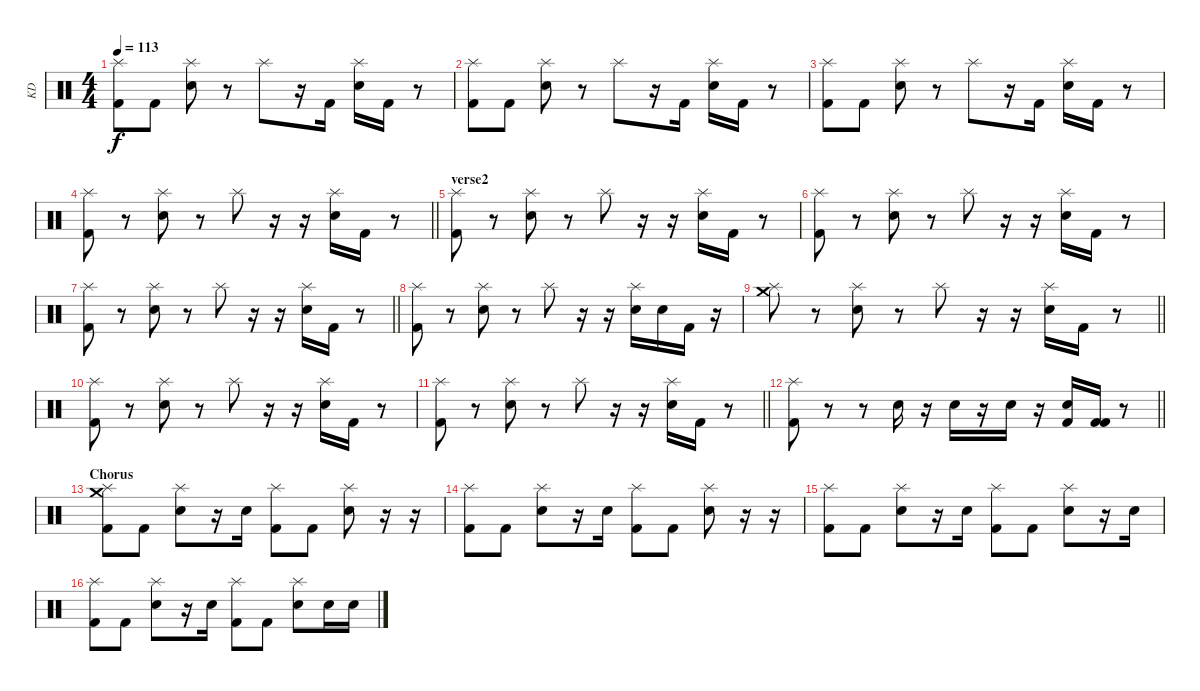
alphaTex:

\track ("KD" "KD") {instrument percussion}
\staff {score}
\articulation defaults
\ts (4 4)
\tempo 113
\clef neutral
\ks c
("Kick (hit) 2" "Splash (hit)").8{dy f} "Kick (hit) 2".8 ("Electric Snare (hit)" "Splash (hit)").8 r.8 "Splash (hit)".8 r.16 "Kick (hit) 2".16 ("Electric Snare (hit)" "Splash (hit)").16 "Kick (hit) 2".16 r.8 |
("Kick (hit) 2" "Splash (hit)").8 "Kick (hit) 2".8 ("Electric Snare (hit)" "Splash (hit)").8 r.8 "Splash (hit)".8 r.16 "Kick (hit) 2".16 ("Electric Snare (hit)" "Splash (hit)").16 "Kick (hit) 2".16 r.8 |
("Kick (hit) 2" "Splash (hit)").8 "Kick (hit) 2".8 ("Electric Snare (hit)" "Splash (hit)").8 r.8 "Splash (hit)".8 r.16 "Kick (hit) 2".16 ("Electric Snare (hit)" "Splash (hit)").16 "Kick (hit) 2".16 r.8 |
\barLineRight lightlight
("Kick (hit) 2" "Splash (hit)").8 r.8 ("Electric Snare (hit)" "Splash (hit)").8 r.8 "Splash (hit)".8 r.16 r.16 ("Electric Snare (hit)" "Splash (hit)").16 "Kick (hit) 2".16 r.8 |
\section ("" "verse2")
("Kick (hit) 2" "Splash (hit)").8 r.8 ("Electric Snare (hit)" "Splash (hit)").8 r.8 "Splash (hit)".8 r.16 r.16 ("Electric Snare (hit)" "Splash (hit)").16 "Kick (hit) 2".16 r.8 |
("Kick (hit) 2" "Splash (hit)").8 r.8 ("Electric Snare (hit)" "Splash (hit)").8 r.8 "Splash (hit)".8 r.16 r.16 ("Electric Snare (hit)" "Splash (hit)").16 "Kick (hit) 2".16 r.8 |
\barLineRight lightlight
("Kick (hit) 2" "Splash (hit)").8 r.8 ("Electric Snare (hit)" "Splash (hit)").8 r.8 "Splash (hit)".8 r.16 r.16 ("Electric Snare (hit)" "Splash (hit)").16 "Kick (hit) 2".16 r.8 |
("Kick (hit) 2" "Splash (hit)").8 r.8 ("Electric Snare (hit)" "Splash (hit)").8 r.8 "Splash (hit)".8 r.16 r.16 ("Electric Snare (hit)" "Splash (hit)").16 "Electric Snare (hit)".16 "Kick (hit) 2".16 r.16 |
\barLineRight lightlight
("Splash (hit)" "Crash medium (hit)").8 r.8 ("Electric Snare (hit)" "Splash (hit)").8 r.8 "Splash (hit)".8 r.16 r.16 ("Electric Snare (hit)" "Splash (hit)").16 "Kick (hit) 2".16 r.8 |
("Kick (hit) 2" "Splash (hit)").8 r.8 ("Electric Snare (hit)" "Splash (hit)").8 r.8 "Splash (hit)".8 r.16 r.16 ("Electric Snare (hit)" "Splash (hit)").16 "Kick (hit) 2".16 r.8 |
\barLineRight lightlight
("Kick (hit) 2" "Splash (hit)").8 r.8 ("Electric Snare (hit)" "Splash (hit)").8 r.8 "Splash (hit)".8 r.16 r.16 ("Electric Snare (hit)" "Splash (hit)").16 "Kick (hit) 2".16 r.8 |
\barLineRight lightlight
("Kick (hit) 2" "Splash (hit)").8 r.8 r.8 "Electric Snare (hit)".16 r.16 "Electric Snare (hit)".16 r.16 "Electric Snare (hit)".16 r.16 ("Electric Snare (hit)" "Kick (hit) 2").16 ("Kick (hit) 2" "Kick (hit) 2").16 r.8 |
\section ("" "Chorus")
("Kick (hit) 2" "Crash medium (hit)" "Splash (hit)").8 "Kick (hit) 2".8 ("Electric Snare (hit)" "Splash (hit)").8 r.16 "Electric Snare (hit)".16 ("Kick (hit) 2" "Splash (hit)").8 "Kick (hit) 2".8 ("Electric Snare (hit)" "Splash (hit)").8 r.16 r.16 |
("Kick (hit) 2" "Splash (hit)").8 "Kick (hit) 2".8 ("Electric Snare (hit)" "Splash (hit)").8 r.16 "Electric Snare (hit)".16 ("Kick (hit) 2" "Splash (hit)").8 "Kick (hit) 2".8 ("Electric Snare (hit)" "Splash (hit)").8 r.16 r.16 |
("Kick (hit) 2" "Splash (hit)").8 "Kick (hit) 2".8 ("Electric Snare (hit)" "Splash (hit)").8 r.16 "Electric Snare (hit)".16 ("Kick (hit) 2" "Splash (hit)").8 "Kick (hit) 2".8 ("Electric Snare (hit)" "Splash (hit)").8 r.16 "Electric Snare (hit)".16 |
("Kick (hit) 2" "Splash (hit)").8 "Kick (hit) 2".8 ("Electric Snare (hit)" "Splash (hit)").8 r.16 "Electric Snare (hit)".16 ("Kick (hit) 2" "Splash (hit)").8 "Kick (hit) 2".8 ("Electric Snare (hit)" "Splash (hit)").8 "Electric Snare (hit)".16 "Electric Snare (hit)".16
